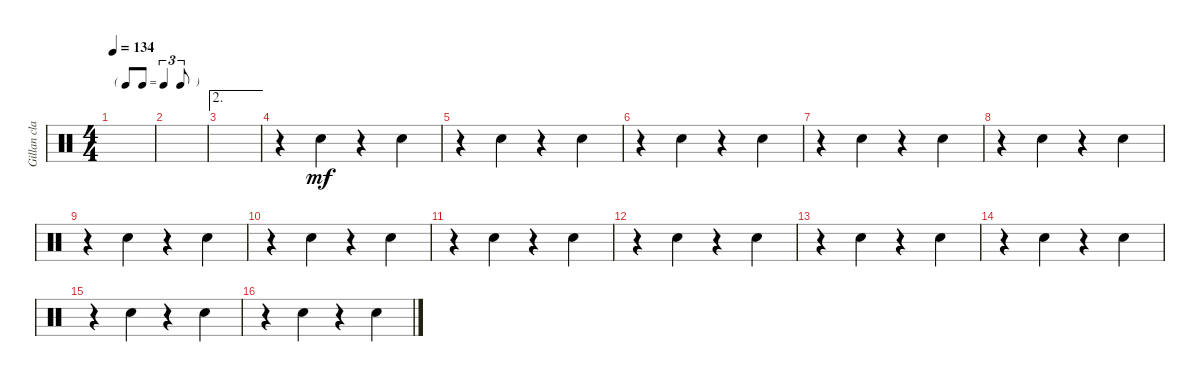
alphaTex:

\track ("Gillan claps along" "Gillan cla") {instrument percussion}
\staff {score}
\articulation defaults
\ts (4 4)
\tf triplet8th
\tempo 134
\clef neutral
\ks c
|
|
\ae 2
|
r.4 "Hand Clap (hit)".4{dy mf} r.4 "Hand Clap (hit)".4 |
r.4 "Hand Clap (hit)".4 r.4 "Hand Clap (hit)".4 |
r.4 "Hand Clap (hit)".4 r.4 "Hand Clap (hit)".4 |
r.4 "Hand Clap (hit)".4 r.4 "Hand Clap (hit)".4 |
r.4 "Hand Clap (hit)".4 r.4 "Hand Clap (hit)".4 |
r.4 "Hand Clap (hit)".4 r.4 "Hand Clap (hit)".4 |
r.4 "Hand Clap (hit)".4 r.4 "Hand Clap (hit)".4 |
r.4 "Hand Clap (hit)".4 r.4 "Hand Clap (hit)".4 |
r.4 "Hand Clap (hit)".4 r.4 "Hand Clap (hit)".4 |
r.4 "Hand Clap (hit)".4 r.4 "Hand Clap (hit)".4 |
r.4 "Hand Clap (hit)".4 r.4 "Hand Clap (hit)".4 |
r.4 "Hand Clap (hit)".4 r.4 "Hand Clap (hit)".4 |
r.4 "Hand Clap (hit)".4 r.4 "Hand Clap (hit)".4
